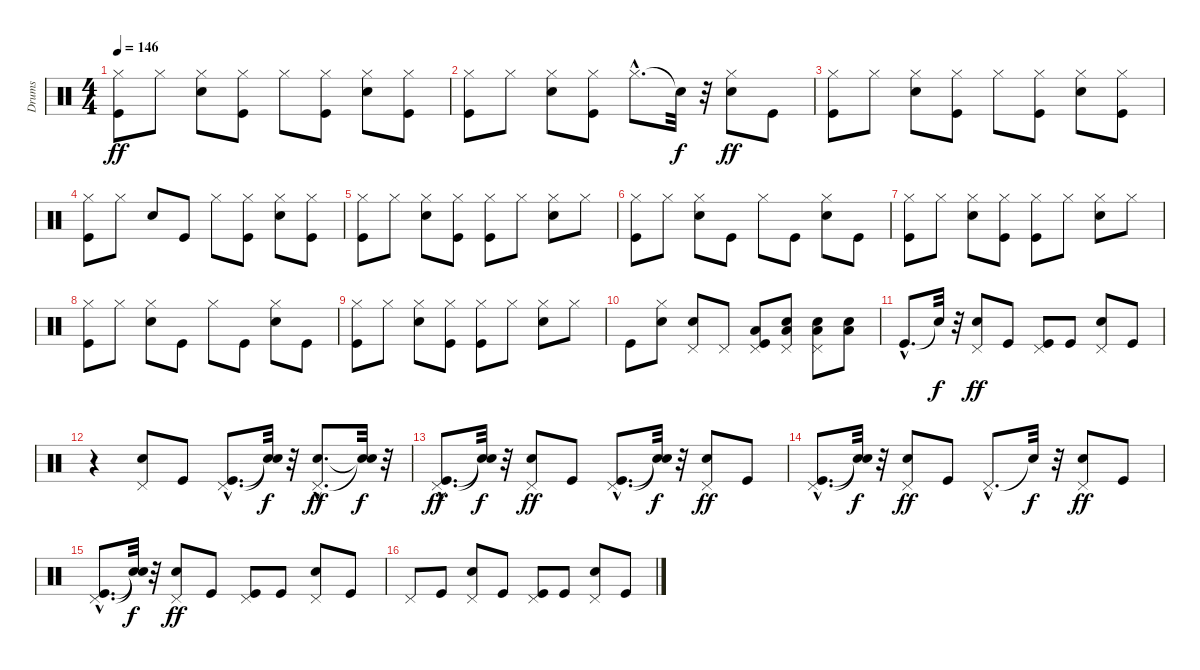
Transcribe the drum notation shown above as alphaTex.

\track ("Drums" "Drums") {instrument percussion}
\staff {score}
\articulation defaults
\ts (4 4)
\tempo 146
\clef neutral
\ks c
("Kick (hit)" "Hi-Hat (closed)").8{dy ff} "Hi-Hat (closed)".8 ("Snare (hit) 2" "Hi-Hat (closed)").8 ("Kick (hit)" "Hi-Hat (closed)").8 "Hi-Hat (closed)".8 ("Kick (hit)" "Hi-Hat (closed)").8 ("Snare (hit) 2" "Hi-Hat (closed)").8 ("Kick (hit)" "Hi-Hat (closed)").8 |
("Kick (hit)" "Hi-Hat (closed)").8 "Hi-Hat (closed)".8 ("Snare (hit) 2" "Hi-Hat (closed)").8 ("Kick (hit)" "Hi-Hat (closed)").8 "Hi-Hat (closed)"{hac}.8{d} "Snare (hit)"{t}.32{dy f} r.32 ("Snare (hit) 2" "Hi-Hat (closed)").8{dy ff} "Kick (hit)".8 |
("Kick (hit)" "Hi-Hat (closed)").8 "Hi-Hat (closed)".8 ("Snare (hit) 2" "Hi-Hat (closed)").8 ("Kick (hit)" "Hi-Hat (closed)").8 "Hi-Hat (closed)".8 ("Kick (hit)" "Hi-Hat (closed)").8 ("Snare (hit) 2" "Hi-Hat (closed)").8 ("Kick (hit)" "Hi-Hat (closed)").8 |
("Kick (hit)" "Hi-Hat (closed)").8 "Hi-Hat (closed)".8 "Snare (hit) 2".8 "Kick (hit)".8 "Hi-Hat (closed)".8 ("Kick (hit)" "Hi-Hat (closed)").8 ("Snare (hit) 2" "Hi-Hat (closed)").8 ("Kick (hit)" "Hi-Hat (closed)").8 |
("Kick (hit)" "Hi-Hat (closed)").8 "Hi-Hat (closed)".8 ("Snare (hit) 2" "Hi-Hat (closed)").8 ("Kick (hit)" "Hi-Hat (closed)").8 ("Kick (hit)" "Hi-Hat (closed)").8 "Hi-Hat (closed)".8 ("Snare (hit) 2" "Hi-Hat (closed)").8 "Hi-Hat (closed)".8 |
("Kick (hit)" "Hi-Hat (closed)").8 "Hi-Hat (closed)".8 ("Snare (hit) 2" "Hi-Hat (closed)").8 "Kick (hit)".8 "Hi-Hat (closed)".8 "Kick (hit)".8 ("Snare (hit) 2" "Hi-Hat (closed)").8 "Kick (hit)".8 |
("Kick (hit)" "Hi-Hat (closed)").8 "Hi-Hat (closed)".8 ("Snare (hit) 2" "Hi-Hat (closed)").8 ("Kick (hit)" "Hi-Hat (closed)").8 ("Kick (hit)" "Hi-Hat (closed)").8 "Hi-Hat (closed)".8 ("Snare (hit) 2" "Hi-Hat (closed)").8 "Hi-Hat (closed)".8 |
("Kick (hit)" "Hi-Hat (closed)").8 "Hi-Hat (closed)".8 ("Snare (hit) 2" "Hi-Hat (closed)").8 "Kick (hit)".8 "Hi-Hat (closed)".8 "Kick (hit)".8 ("Snare (hit) 2" "Hi-Hat (closed)").8 "Kick (hit)".8 |
("Kick (hit)" "Hi-Hat (closed)").8 "Hi-Hat (closed)".8 ("Snare (hit) 2" "Hi-Hat (closed)").8 ("Kick (hit)" "Hi-Hat (closed)").8 ("Kick (hit)" "Hi-Hat (closed)").8 "Hi-Hat (closed)".8 ("Snare (hit) 2" "Hi-Hat (closed)").8 "Hi-Hat (closed)".8 |
"Kick (hit)".8 ("Snare (hit) 2" "Hi-Hat (closed)").8 ("Snare (hit) 2" "Pedal Hi-Hat (hit)").8 "Pedal Hi-Hat (hit)".8 ("Kick (hit)" "Pedal Hi-Hat (hit)" "Low Tom (hit)").8 ("Snare (hit) 2" "Pedal Hi-Hat (hit)" "Low Tom (hit)").8 ("Snare (hit) 2" "Low Floor Tom (hit)" "Pedal Hi-Hat (hit)").8 ("Snare (hit) 2" "Low Floor Tom (hit)").8 |
"Kick (hit)"{hac}.8{d} "Snare (hit)"{t}.32{dy f} r.32 ("Snare (hit) 2" "Pedal Hi-Hat (hit)").8{dy ff} "Kick (hit)".8 ("Kick (hit)" "Pedal Hi-Hat (hit)").8 "Kick (hit)".8 ("Snare (hit) 2" "Pedal Hi-Hat (hit)").8 "Kick (hit)".8 |
r.4 ("Snare (hit) 2" "Pedal Hi-Hat (hit)").8 "Kick (hit)".8 ("Kick (hit)"{hac} "Pedal Hi-Hat (hit)"{hac}).8{d} ("Snare (hit)"{t} "Snare (hit)"{t}).32{dy f} r.32 ("Snare (hit) 2"{hac} "Pedal Hi-Hat (hit)"{hac}).8{d dy ff} ("Snare (hit)"{t} "Snare (hit)"{t}).32{dy f} r.32 |
("Kick (hit)"{hac} "Pedal Hi-Hat (hit)"{hac}).8{d dy ff} ("Snare (hit)"{t} "Snare (hit)"{t}).32{dy f} r.32 ("Snare (hit) 2" "Pedal Hi-Hat (hit)").8{dy ff} "Kick (hit)".8 ("Kick (hit)"{hac} "Pedal Hi-Hat (hit)"{hac}).8{d} ("Snare (hit)"{t} "Snare (hit)"{t}).32{dy f} r.32 ("Snare (hit) 2" "Pedal Hi-Hat (hit)").8{dy ff} "Kick (hit)".8 |
("Kick (hit)"{hac} "Pedal Hi-Hat (hit)"{hac}).8{d} ("Snare (hit)"{t} "Snare (hit)"{t}).32{dy f} r.32 ("Snare (hit) 2" "Pedal Hi-Hat (hit)").8{dy ff} "Kick (hit)".8 "Pedal Hi-Hat (hit)"{hac}.8{d} "Snare (hit)"{t}.32{dy f} r.32 ("Snare (hit) 2" "Pedal Hi-Hat (hit)").8{dy ff} "Kick (hit)".8 |
("Kick (hit)"{hac} "Pedal Hi-Hat (hit)"{hac}).8{d} ("Snare (hit)"{t} "Snare (hit)"{t}).32{dy f} r.32 ("Snare (hit) 2" "Pedal Hi-Hat (hit)").8{dy ff} "Kick (hit)".8 ("Kick (hit)" "Pedal Hi-Hat (hit)").8 "Kick (hit)".8 ("Snare (hit) 2" "Pedal Hi-Hat (hit)").8 "Kick (hit)".8 |
"Pedal Hi-Hat (hit)".8 "Kick (hit)".8 ("Snare (hit) 2" "Pedal Hi-Hat (hit)").8 "Kick (hit)".8 ("Kick (hit)" "Pedal Hi-Hat (hit)").8 "Kick (hit)".8 ("Snare (hit) 2" "Pedal Hi-Hat (hit)").8 "Kick (hit)".8
